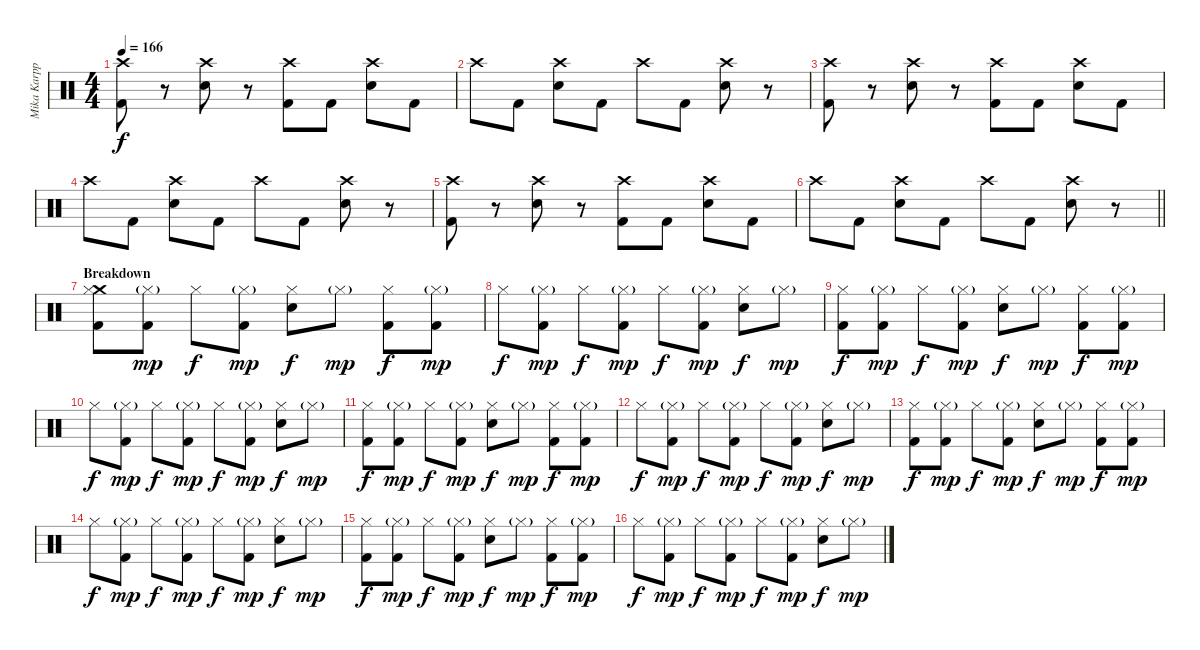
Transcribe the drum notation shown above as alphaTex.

\track ("Mika Karppinen" "Mika Karpp") {instrument percussion}
\staff {score}
\articulation defaults
\ts (4 4)
\tempo 166
\clef neutral
\ks c
("Crash high (hit)" "Kick (hit) 2").8{dy f} r.8 ("Crash high (hit)" "Snare (hit) 2").8 r.8 ("Crash high (hit)" "Kick (hit) 2").8 "Kick (hit) 2".8 ("Crash high (hit)" "Snare (hit) 2").8 "Kick (hit) 2".8 |
"Crash high (hit)".8 "Kick (hit) 2".8 ("Crash high (hit)" "Snare (hit) 2").8 "Kick (hit) 2".8 "Crash high (hit)".8 "Kick (hit) 2".8 ("Crash high (hit)" "Snare (hit) 2").8 r.8 |
("Crash high (hit)" "Kick (hit) 2").8 r.8 ("Crash high (hit)" "Snare (hit) 2").8 r.8 ("Crash high (hit)" "Kick (hit) 2").8 "Kick (hit) 2".8 ("Crash high (hit)" "Snare (hit) 2").8 "Kick (hit) 2".8 |
"Crash high (hit)".8 "Kick (hit) 2".8 ("Crash high (hit)" "Snare (hit) 2").8 "Kick (hit) 2".8 "Crash high (hit)".8 "Kick (hit) 2".8 ("Crash high (hit)" "Snare (hit) 2").8 r.8 |
("Crash high (hit)" "Kick (hit) 2").8 r.8 ("Crash high (hit)" "Snare (hit) 2").8 r.8 ("Crash high (hit)" "Kick (hit) 2").8 "Kick (hit) 2".8 ("Crash high (hit)" "Snare (hit) 2").8 "Kick (hit) 2".8 |
\barLineRight lightlight "Crash high (hit)".8 "Kick (hit) 2".8
("Crash high (hit)" "Snare (hit) 2").8 "Kick (hit) 2".8 "Crash high (hit)".8 "Kick (hit) 2".8 ("Crash high (hit)" "Snare (hit) 2").8 r.8 |
\section ("" "Breakdown")
("Crash medium (hit)" "Hi-Hat (closed)" "Kick (hit) 2").8 ("Hi-Hat (closed)"{g} "Kick (hit) 2").8{dy mp} "Hi-Hat (closed)".8{dy f} ("Hi-Hat (closed)"{g} "Kick (hit) 2").8{dy mp} ("Hi-Hat (closed)" "Snare (hit) 2").8{dy f} "Hi-Hat (closed)"{g}.8{dy mp} ("Hi-Hat (closed)" "Kick (hit) 2").8{dy f} ("Hi-Hat (closed)"{g} "Kick (hit) 2").8{dy mp} |
"Hi-Hat (closed)".8{dy f} ("Hi-Hat (closed)"{g} "Kick (hit) 2").8{dy mp} "Hi-Hat (closed)".8{dy f} ("Hi-Hat (closed)"{g} "Kick (hit) 2").8{dy mp} "Hi-Hat (closed)".8{dy f} ("Hi-Hat (closed)"{g} "Kick (hit) 2").8{dy mp} ("Hi-Hat (closed)" "Snare (hit) 2").8{dy f} "Hi-Hat (closed)"{g}.8{dy mp} |
("Hi-Hat (closed)" "Kick (hit) 2").8{dy f} ("Hi-Hat (closed)"{g} "Kick (hit) 2").8{dy mp} "Hi-Hat (closed)".8{dy f} ("Hi-Hat (closed)"{g} "Kick (hit) 2").8{dy mp} ("Hi-Hat (closed)" "Snare (hit) 2").8{dy f} "Hi-Hat (closed)"{g}.8{dy mp} ("Hi-Hat (closed)" "Kick (hit) 2").8{dy f} ("Hi-Hat (closed)"{g} "Kick (hit) 2").8{dy mp} |
"Hi-Hat (closed)".8{dy f} ("Hi-Hat (closed)"{g} "Kick (hit) 2").8{dy mp} "Hi-Hat (closed)".8{dy f} ("Hi-Hat (closed)"{g} "Kick (hit) 2").8{dy mp} "Hi-Hat (closed)".8{dy f} ("Hi-Hat (closed)"{g} "Kick (hit) 2").8{dy mp} ("Hi-Hat (closed)" "Snare (hit) 2").8{dy f} "Hi-Hat (closed)"{g}.8{dy mp} |
("Hi-Hat (closed)" "Kick (hit) 2").8{dy f} ("Hi-Hat (closed)"{g} "Kick (hit) 2").8{dy mp} "Hi-Hat (closed)".8{dy f} ("Hi-Hat (closed)"{g} "Kick (hit) 2").8{dy mp} ("Hi-Hat (closed)" "Snare (hit) 2").8{dy f} "Hi-Hat (closed)"{g}.8{dy mp} ("Hi-Hat (closed)" "Kick (hit) 2").8{dy f} ("Hi-Hat (closed)"{g} "Kick (hit) 2").8{dy mp} |
"Hi-Hat (closed)".8{dy f} ("Hi-Hat (closed)"{g} "Kick (hit) 2").8{dy mp} "Hi-Hat (closed)".8{dy f} ("Hi-Hat (closed)"{g} "Kick (hit) 2").8{dy mp} "Hi-Hat (closed)".8{dy f} ("Hi-Hat (closed)"{g} "Kick (hit) 2").8{dy mp} ("Hi-Hat (closed)" "Snare (hit) 2").8{dy f} "Hi-Hat (closed)"{g}.8{dy mp} |
("Hi-Hat (closed)" "Kick (hit) 2").8{dy f} ("Hi-Hat (closed)"{g} "Kick (hit) 2").8{dy mp} "Hi-Hat (closed)".8{dy f} ("Hi-Hat (closed)"{g} "Kick (hit) 2").8{dy mp} ("Hi-Hat (closed)" "Snare (hit) 2").8{dy f} "Hi-Hat (closed)"{g}.8{dy mp} ("Hi-Hat (closed)" "Kick (hit) 2").8{dy f} ("Hi-Hat (closed)"{g} "Kick (hit) 2").8{dy mp} |
"Hi-Hat (closed)".8{dy f} ("Hi-Hat (closed)"{g} "Kick (hit) 2").8{dy mp} "Hi-Hat (closed)".8{dy f} ("Hi-Hat (closed)"{g} "Kick (hit) 2").8{dy mp} "Hi-Hat (closed)".8{dy f} ("Hi-Hat (closed)"{g} "Kick (hit) 2").8{dy mp} ("Hi-Hat (closed)" "Snare (hit) 2").8{dy f} "Hi-Hat (closed)"{g}.8{dy mp} |
("Hi-Hat (closed)" "Kick (hit) 2").8{dy f} ("Hi-Hat (closed)"{g} "Kick (hit) 2").8{dy mp} "Hi-Hat (closed)".8{dy f} ("Hi-Hat (closed)"{g} "Kick (hit) 2").8{dy mp} ("Hi-Hat (closed)" "Snare (hit) 2").8{dy f} "Hi-Hat (closed)"{g}.8{dy mp} ("Hi-Hat (closed)" "Kick (hit) 2").8{dy f} ("Hi-Hat (closed)"{g} "Kick (hit) 2").8{dy mp} |
"Hi-Hat (closed)".8{dy f} ("Hi-Hat (closed)"{g} "Kick (hit) 2").8{dy mp} "Hi-Hat (closed)".8{dy f} ("Hi-Hat (closed)"{g} "Kick (hit) 2").8{dy mp} "Hi-Hat (closed)".8{dy f} ("Hi-Hat (closed)"{g} "Kick (hit) 2").8{dy mp} ("Hi-Hat (closed)" "Snare (hit) 2").8{dy f} "Hi-Hat (closed)"{g}.8{dy mp}
